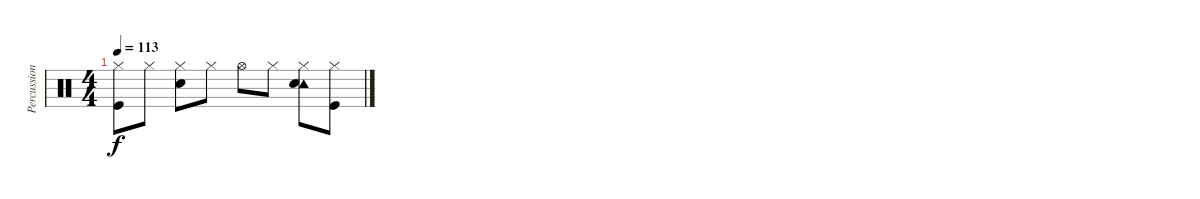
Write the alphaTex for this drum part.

\track ("Percussion" "Percussion") {instrument percussion}
\staff {score}
\articulation defaults
\ts (4 4)
\tempo 113
\clef neutral
\ks c
("Hi-Hat (closed)" "Kick (hit)").8{dy f} "Hi-Hat (closed)".8 ("Hi-Hat (closed)" "Snare (hit) 2").8 "Hi-Hat (closed)".8 "Hi-Hat (open)".8 "Hi-Hat (closed)".8 ("Hi-Hat (closed)" "Tambourine (hit)" "Snare (hit) 2").8 ("Hi-Hat (closed)" "Kick (hit)").8
